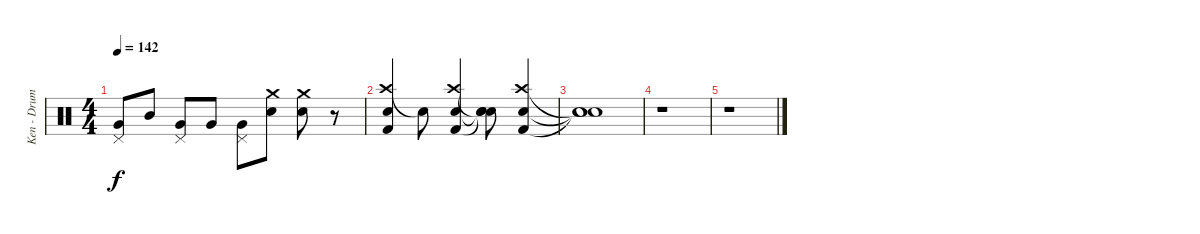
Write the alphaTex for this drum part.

\track ("Ken - Drums" "Ken - Drum") {instrument percussion}
\staff {score}
\articulation defaults
\ts (4 4)
\tempo 142
\clef neutral
\ks c
("Pedal Hi-Hat (hit)" "Very Low Tom (hit)").8{dy f} "Mid Tom (hit)".8 ("Pedal Hi-Hat (hit)" "Very Low Tom (hit)").8 "Very Low Tom (hit)".8 ("Pedal Hi-Hat (hit)" "Very Low Tom (hit)").8 ("Crash medium (hit)" "Electric Snare (hit)").8 ("Crash medium (hit)" "Electric Snare (hit)").8 r.8 |
("Crash high (hit)" "Electric Snare (hit)" "Kick (hit) 2").4 "Snare (hit)"{t}.8 ("Crash high (hit)" "Electric Snare (hit)" "Kick (hit) 2").4 ("Snare (hit)"{t} "Snare (hit)"{t} "Snare (hit)"{t}).8 ("Crash high (hit)" "Electric Snare (hit)" "Kick (hit) 2").4 |
("Snare (hit)"{t} "Snare (hit)"{t} "Snare (hit)"{t}).1 |
r.1 |
r.1
